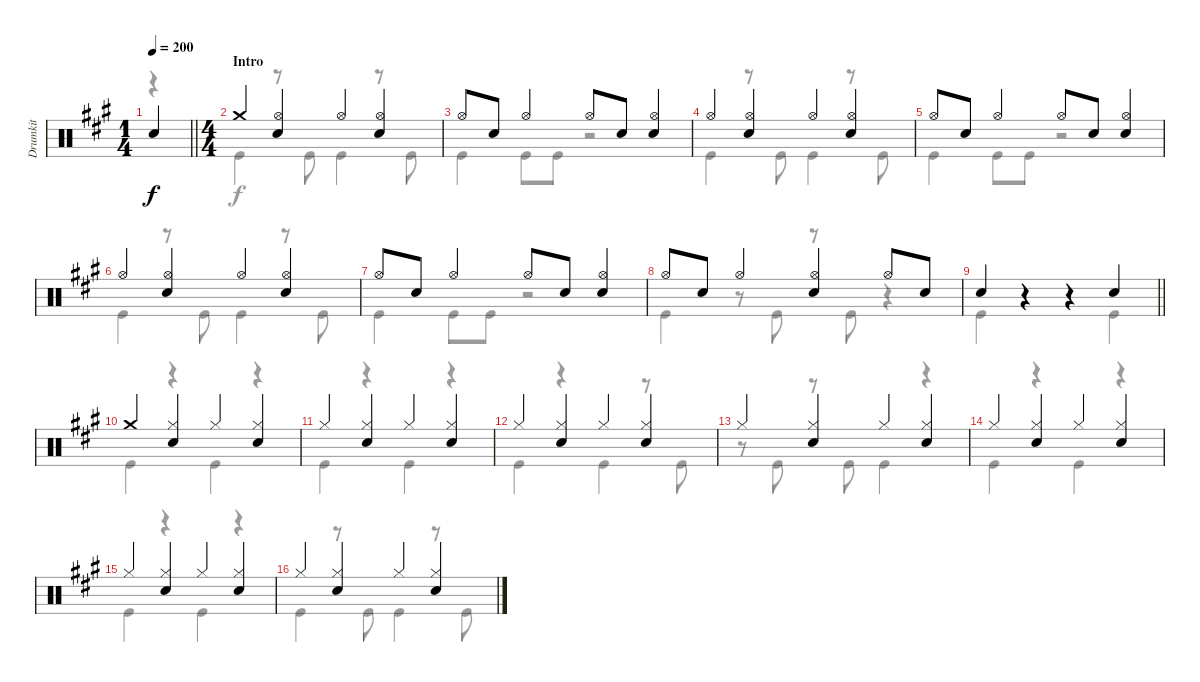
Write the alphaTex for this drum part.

\track ("Drumkit" "Drumkit") {instrument percussion}
\staff {score}
\articulation defaults
\voice
\ts (1 4)
\tempo 200
\clef neutral
\barLineRight lightlight
\ks a "Snare (hit) 2".4{dy f}
|
\ts (4 4)
\section ("" "Intro")
"Crash medium (hit)".4 ("Hi-Hat (open)" "Snare (hit) 2").4 "Hi-Hat (open)".4 ("Hi-Hat (open)" "Snare (hit) 2").4 |
"Hi-Hat (open)".8 "Snare (hit) 2".8 "Hi-Hat (open)".4 "Hi-Hat (open)".8 "Snare (hit) 2".8 ("Snare (hit) 2" "Hi-Hat (open)").4 |
"Hi-Hat (open)".4 ("Hi-Hat (open)" "Snare (hit) 2").4 "Hi-Hat (open)".4 ("Hi-Hat (open)" "Snare (hit) 2").4 |
"Hi-Hat (open)".8 "Snare (hit) 2".8 "Hi-Hat (open)".4 "Hi-Hat (open)".8 "Snare (hit) 2".8 ("Snare (hit) 2" "Hi-Hat (open)").4 |
"Hi-Hat (open)".4 ("Hi-Hat (open)" "Snare (hit) 2").4 "Hi-Hat (open)".4 ("Hi-Hat (open)" "Snare (hit) 2").4 |
"Hi-Hat (open)".8 "Snare (hit) 2".8 "Hi-Hat (open)".4 "Hi-Hat (open)".8 "Snare (hit) 2".8 ("Snare (hit) 2" "Hi-Hat (open)").4 |
"Hi-Hat (open)".8 "Snare (hit) 2".8 "Hi-Hat (open)".4 ("Hi-Hat (open)" "Snare (hit) 2").4 "Hi-Hat (open)".8 "Snare (hit) 2".8 |
\barLineRight lightlight "Snare (hit) 2".4
r.4 r.4 "Snare (hit) 2".4 |
\section ("" "")
"Crash medium (hit)".4 ("Hi-Hat (closed)" "Snare (hit) 2").4 "Hi-Hat (closed)".4 ("Snare (hit) 2" "Hi-Hat (closed)").4 |
"Hi-Hat (closed)".4 ("Hi-Hat (closed)" "Snare (hit) 2").4 "Hi-Hat (closed)".4 ("Hi-Hat (closed)" "Snare (hit) 2").4 |
"Hi-Hat (closed)".4 ("Hi-Hat (closed)" "Snare (hit) 2").4 "Hi-Hat (closed)".4 ("Hi-Hat (closed)" "Snare (hit) 2").4 |
"Hi-Hat (closed)".4 ("Hi-Hat (closed)" "Snare (hit) 2").4 "Hi-Hat (closed)".4 ("Hi-Hat (closed)" "Snare (hit) 2").4 |
"Hi-Hat (closed)".4 ("Hi-Hat (closed)" "Snare (hit) 2").4 "Hi-Hat (closed)".4 ("Hi-Hat (closed)" "Snare (hit) 2").4 |
"Hi-Hat (closed)".4 ("Hi-Hat (closed)" "Snare (hit) 2").4 "Hi-Hat (closed)".4 ("Hi-Hat (closed)" "Snare (hit) 2").4 |
"Hi-Hat (closed)".4 ("Hi-Hat (closed)" "Snare (hit) 2").4 "Hi-Hat (closed)".4 ("Hi-Hat (closed)" "Snare (hit) 2").4
\voice
\clef neutral
\ottava regular
\simile none
\barLineRight lightlight
\ks a
r.4{dy f} |
"Kick (hit)".4 r.8 "Kick (hit)".8 "Kick (hit)".4 r.8 "Kick (hit)".8 |
"Kick (hit)".4 "Kick (hit)".8 "Kick (hit)".8 r.2 |
"Kick (hit)".4 r.8 "Kick (hit)".8 "Kick (hit)".4 r.8 "Kick (hit)".8 |
"Kick (hit)".4 "Kick (hit)".8 "Kick (hit)".8 r.2 |
"Kick (hit)".4 r.8 "Kick (hit)".8 "Kick (hit)".4 r.8 "Kick (hit)".8 |
"Kick (hit)".4 "Kick (hit)".8 "Kick (hit)".8 r.2 |
"Kick (hit)".4 r.8 "Kick (hit)".8 r.8 "Kick (hit)".8 r.4 |
\barLineRight lightlight "Kick (hit)".4
r.4 r.4 "Kick (hit)".4 |
"Kick (hit)".4 r.4 "Kick (hit)".4 r.4 |
"Kick (hit)".4 r.4 "Kick (hit)".4 r.4 |
"Kick (hit)".4 r.4 "Kick (hit)".4 r.8 "Kick (hit)".8 |
r.8 "Kick (hit)".8 r.8 "Kick (hit)".8 "Kick (hit)".4 r.4 |
"Kick (hit)".4 r.4 "Kick (hit)".4 r.4 |
"Kick (hit)".4 r.4 "Kick (hit)".4 r.4 |
"Kick (hit)".4 r.8 "Kick (hit)".8 "Kick (hit)".4 r.8 "Kick (hit)".8
